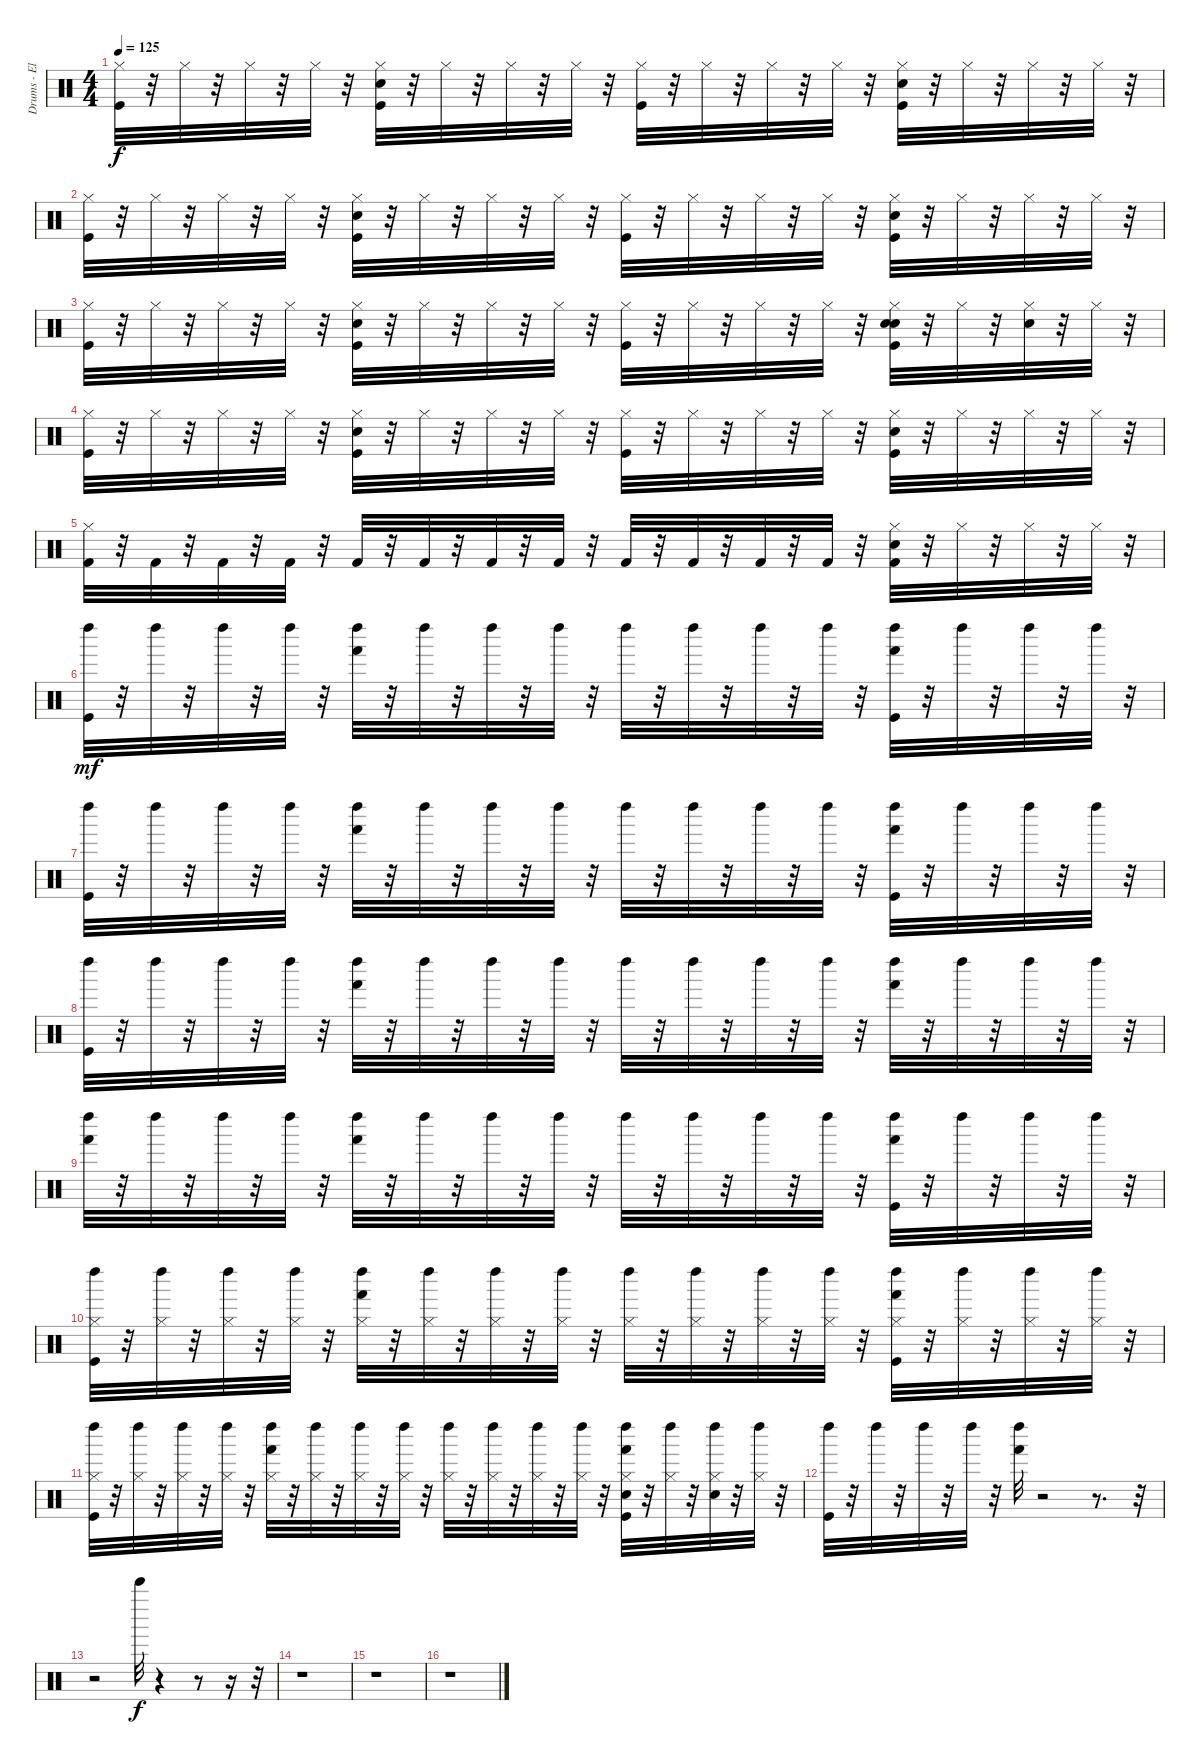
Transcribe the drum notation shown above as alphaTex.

\track ("Drums - El" "Drums - El") {instrument percussion}
\staff {score}
\articulation defaults
\ts (4 4)
\tempo 125
\clef neutral
\ks c
("Kick (hit)" "Hi-Hat (closed)").32{dy f} r.32 "Hi-Hat (closed)".32 r.32 "Hi-Hat (closed)".32 r.32 "Hi-Hat (closed)".32 r.32 ("Kick (hit)" "Electric Snare (hit)" "Hi-Hat (closed)").32 r.32 "Hi-Hat (closed)".32 r.32 "Hi-Hat (closed)".32 r.32 "Hi-Hat (closed)".32 r.32 ("Kick (hit)" "Hi-Hat (closed)").32 r.32 "Hi-Hat (closed)".32 r.32 "Hi-Hat (closed)".32 r.32 "Hi-Hat (closed)".32 r.32 ("Kick (hit)" "Electric Snare (hit)" "Hi-Hat (closed)").32 r.32 "Hi-Hat (closed)".32 r.32 "Hi-Hat (closed)".32 r.32 "Hi-Hat (closed)".32 r.32 |
("Kick (hit)" "Hi-Hat (closed)").32 r.32 "Hi-Hat (closed)".32 r.32 "Hi-Hat (closed)".32 r.32 "Hi-Hat (closed)".32 r.32 ("Kick (hit)" "Electric Snare (hit)" "Hi-Hat (closed)").32 r.32 "Hi-Hat (closed)".32 r.32 "Hi-Hat (closed)".32 r.32 "Hi-Hat (closed)".32 r.32 ("Kick (hit)" "Hi-Hat (closed)").32 r.32 "Hi-Hat (closed)".32 r.32 "Hi-Hat (closed)".32 r.32 "Hi-Hat (closed)".32 r.32 ("Kick (hit)" "Electric Snare (hit)" "Hi-Hat (closed)").32 r.32 "Hi-Hat (closed)".32 r.32 "Hi-Hat (closed)".32 r.32 "Hi-Hat (closed)".32 r.32 |
("Kick (hit)" "Hi-Hat (closed)").32 r.32 "Hi-Hat (closed)".32 r.32 "Hi-Hat (closed)".32 r.32 "Hi-Hat (closed)".32 r.32 ("Kick (hit)" "Electric Snare (hit)" "Hi-Hat (closed)").32 r.32 "Hi-Hat (closed)".32 r.32 "Hi-Hat (closed)".32 r.32 "Hi-Hat (closed)".32 r.32 ("Kick (hit)" "Hi-Hat (closed)").32 r.32 "Hi-Hat (closed)".32 r.32 "Hi-Hat (closed)".32 r.32 "Hi-Hat (closed)".32 r.32 ("Kick (hit)" "Electric Snare (hit)" "Hand Clap (hit)" "Hi-Hat (closed)").32 r.32 "Hi-Hat (closed)".32 r.32 ("Hand Clap (hit)" "Hi-Hat (closed)").32 r.32 "Hi-Hat (closed)".32 r.32 |
("Kick (hit)" "Hi-Hat (closed)").32 r.32 "Hi-Hat (closed)".32 r.32 "Hi-Hat (closed)".32 r.32 "Hi-Hat (closed)".32 r.32 ("Kick (hit)" "Electric Snare (hit)" "Hi-Hat (closed)").32 r.32 "Hi-Hat (closed)".32 r.32 "Hi-Hat (closed)".32 r.32 "Hi-Hat (closed)".32 r.32 ("Kick (hit)" "Hi-Hat (closed)").32 r.32 "Hi-Hat (closed)".32 r.32 "Hi-Hat (closed)".32 r.32 "Hi-Hat (closed)".32 r.32 ("Kick (hit)" "Electric Snare (hit)" "Hi-Hat (closed)").32 r.32 "Hi-Hat (closed)".32 r.32 "Hi-Hat (closed)".32 r.32 "Hi-Hat (closed)".32 r.32 |
("Kick (hit) 2" "Hi-Hat (closed)").32 r.32 "Kick (hit) 2".32 r.32 "Kick (hit) 2".32 r.32 "Kick (hit) 2".32 r.32 "Kick (hit) 2".32 r.32 "Kick (hit) 2".32 r.32 "Kick (hit) 2".32 r.32 "Kick (hit) 2".32 r.32 "Kick (hit) 2".32 r.32 "Kick (hit) 2".32 r.32 "Kick (hit) 2".32 r.32 "Kick (hit) 2".32 r.32 ("Kick (hit) 2" "Electric Snare (hit)" "Hi-Hat (closed)").32 r.32 "Hi-Hat (closed)".32 r.32 "Hi-Hat (closed)".32 r.32 "Hi-Hat (closed)".32 r.32 |
("Kick (hit)" "Left Maraca (hit)").32{dy mf} r.32 "Left Maraca (hit)".32 r.32 "Left Maraca (hit)".32 r.32 "Left Maraca (hit)".32 r.32 ("Hand (hit)" "Left Maraca (hit)").32 r.32 "Left Maraca (hit)".32 r.32 "Left Maraca (hit)".32 r.32 "Left Maraca (hit)".32 r.32 "Left Maraca (hit)".32 r.32 "Left Maraca (hit)".32 r.32 "Left Maraca (hit)".32 r.32 "Left Maraca (hit)".32 r.32 ("Kick (hit)" "Hand (hit)" "Left Maraca (hit)").32 r.32 "Left Maraca (hit)".32 r.32 "Left Maraca (hit)".32 r.32 "Left Maraca (hit)".32 r.32 |
("Kick (hit)" "Left Maraca (hit)").32 r.32 "Left Maraca (hit)".32 r.32 "Left Maraca (hit)".32 r.32 "Left Maraca (hit)".32 r.32 ("Hand (hit)" "Left Maraca (hit)").32 r.32 "Left Maraca (hit)".32 r.32 "Left Maraca (hit)".32 r.32 "Left Maraca (hit)".32 r.32 "Left Maraca (hit)".32 r.32 "Left Maraca (hit)".32 r.32 "Left Maraca (hit)".32 r.32 "Left Maraca (hit)".32 r.32 ("Kick (hit)" "Hand (hit)" "Left Maraca (hit)").32 r.32 "Left Maraca (hit)".32 r.32 "Left Maraca (hit)".32 r.32 "Left Maraca (hit)".32 r.32 |
("Kick (hit)" "Left Maraca (hit)").32 r.32 "Left Maraca (hit)".32 r.32 "Left Maraca (hit)".32 r.32 "Left Maraca (hit)".32 r.32 ("Hand (hit)" "Left Maraca (hit)").32 r.32 "Left Maraca (hit)".32 r.32 "Left Maraca (hit)".32 r.32 "Left Maraca (hit)".32 r.32 "Left Maraca (hit)".32 r.32 "Left Maraca (hit)".32 r.32 "Left Maraca (hit)".32 r.32 "Left Maraca (hit)".32 r.32 ("Hand (hit)" "Left Maraca (hit)").32 r.32 "Left Maraca (hit)".32 r.32 "Left Maraca (hit)".32 r.32 "Left Maraca (hit)".32 r.32 |
("Hand (hit)" "Left Maraca (hit)").32 r.32 "Left Maraca (hit)".32 r.32 "Left Maraca (hit)".32 r.32 "Left Maraca (hit)".32 r.32 ("Hand (hit)" "Left Maraca (hit)").32 r.32 "Left Maraca (hit)".32 r.32 "Left Maraca (hit)".32 r.32 "Left Maraca (hit)".32 r.32 "Left Maraca (hit)".32 r.32 "Left Maraca (hit)".32 r.32 "Left Maraca (hit)".32 r.32 "Left Maraca (hit)".32 r.32 ("Kick (hit)" "Hand (hit)" "Left Maraca (hit)").32 r.32 "Left Maraca (hit)".32 r.32 "Left Maraca (hit)".32 r.32 "Left Maraca (hit)".32 r.32 |
("Kick (hit)" "Hi-Hat (closed)" "Left Maraca (hit)").32 r.32 ("Hi-Hat (closed)" "Left Maraca (hit)").32 r.32 ("Hi-Hat (closed)" "Left Maraca (hit)").32 r.32 ("Hi-Hat (closed)" "Left Maraca (hit)").32 r.32 ("Hi-Hat (closed)" "Hand (hit)" "Left Maraca (hit)").32 r.32 ("Hi-Hat (closed)" "Left Maraca (hit)").32 r.32 ("Hi-Hat (closed)" "Left Maraca (hit)").32 r.32 ("Hi-Hat (closed)" "Left Maraca (hit)").32 r.32 ("Hi-Hat (closed)" "Left Maraca (hit)").32 r.32 ("Hi-Hat (closed)" "Left Maraca (hit)").32 r.32 ("Hi-Hat (closed)" "Left Maraca (hit)").32 r.32 ("Hi-Hat (closed)" "Left Maraca (hit)").32 r.32 ("Kick (hit)" "Hi-Hat (closed)" "Hand (hit)" "Left Maraca (hit)").32 r.32 ("Hi-Hat (closed)" "Left Maraca (hit)").32 r.32 ("Hi-Hat (closed)" "Left Maraca (hit)").32 r.32 ("Hi-Hat (closed)" "Left Maraca (hit)").32 r.32 |
("Kick (hit)" "Hi-Hat (closed)" "Left Maraca (hit)").32 r.32 ("Hi-Hat (closed)" "Left Maraca (hit)").32 r.32 ("Hi-Hat (closed)" "Left Maraca (hit)").32 r.32 ("Hi-Hat (closed)" "Left Maraca (hit)").32 r.32 ("Hi-Hat (closed)" "Hand (hit)" "Left Maraca (hit)").32 r.32 ("Hi-Hat (closed)" "Left Maraca (hit)").32 r.32 ("Hi-Hat (closed)" "Left Maraca (hit)").32 r.32 ("Hi-Hat (closed)" "Left Maraca (hit)").32 r.32 ("Hi-Hat (closed)" "Left Maraca (hit)").32 r.32 ("Hi-Hat (closed)" "Left Maraca (hit)").32 r.32 ("Hi-Hat (closed)" "Left Maraca (hit)").32 r.32 ("Hi-Hat (closed)" "Left Maraca (hit)").32 r.32 ("Kick (hit)" "Hand Clap (hit)" "Hi-Hat (closed)" "Hand (hit)" "Left Maraca (hit)").32 r.32 ("Hi-Hat (closed)" "Left Maraca (hit)").32 r.32 ("Hand Clap (hit)" "Hi-Hat (closed)" "Left Maraca (hit)").32 r.32 ("Hi-Hat (closed)" "Left Maraca (hit)").32 r.32 |
("Kick (hit)" "Left Maraca (hit)").32 r.32 "Left Maraca (hit)".32 r.32 "Left Maraca (hit)".32 r.32 "Left Maraca (hit)".32 r.32 ("Hand (hit)" "Left Maraca (hit)").32 r.2 r.8{d} r.32 |
r.2 "Bell Tree (hit)".32{dy f} r.4 r.8 r.16 r.32 |
r.1 |
r.1 |
r.1
